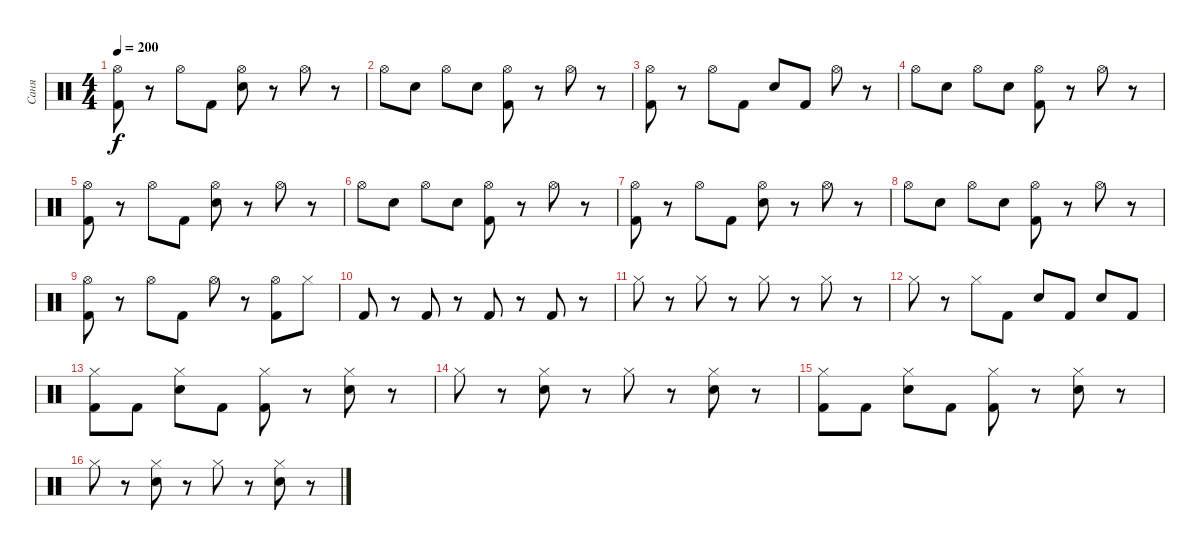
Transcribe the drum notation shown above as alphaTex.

\track ("Саня" "Саня") {instrument percussion}
\staff {score}
\articulation defaults
\ts (4 4)
\tempo 200
\clef neutral
\ks c
("Hi-Hat (open)" "Kick (hit) 2").8{dy f} r.8 "Hi-Hat (open)".8 "Kick (hit) 2".8 ("Hi-Hat (open)" "Electric Snare (hit)").8 r.8 "Hi-Hat (open)".8 r.8 |
"Hi-Hat (open)".8 "Electric Snare (hit)".8 "Hi-Hat (open)".8 "Electric Snare (hit)".8 ("Hi-Hat (open)" "Kick (hit) 2").8 r.8 "Hi-Hat (open)".8 r.8 |
("Hi-Hat (open)" "Kick (hit) 2").8 r.8 "Hi-Hat (open)".8 "Kick (hit) 2".8 "Electric Snare (hit)".8 "Kick (hit) 2".8 "Hi-Hat (open)".8 r.8 |
"Hi-Hat (open)".8 "Electric Snare (hit)".8 "Hi-Hat (open)".8 "Electric Snare (hit)".8 ("Hi-Hat (open)" "Kick (hit) 2").8 r.8 "Hi-Hat (open)".8 r.8 |
("Hi-Hat (open)" "Kick (hit) 2").8 r.8 "Hi-Hat (open)".8 "Kick (hit) 2".8 ("Hi-Hat (open)" "Electric Snare (hit)").8 r.8 "Hi-Hat (open)".8 r.8 |
"Hi-Hat (open)".8 "Electric Snare (hit)".8 "Hi-Hat (open)".8 "Electric Snare (hit)".8 ("Hi-Hat (open)" "Kick (hit) 2").8 r.8 "Hi-Hat (open)".8 r.8 |
("Hi-Hat (open)" "Kick (hit) 2").8 r.8 "Hi-Hat (open)".8 "Kick (hit) 2".8 ("Hi-Hat (open)" "Electric Snare (hit)").8 r.8 "Hi-Hat (open)".8 r.8 |
"Hi-Hat (open)".8 "Electric Snare (hit)".8 "Hi-Hat (open)".8 "Electric Snare (hit)".8 ("Hi-Hat (open)" "Kick (hit) 2").8 r.8 "Hi-Hat (open)".8 r.8 |
("Hi-Hat (open)" "Kick (hit) 2").8 r.8 "Hi-Hat (open)".8 "Kick (hit) 2".8 "Hi-Hat (open)".8 r.8 ("Hi-Hat (open)" "Kick (hit) 2").8 "Hi-Hat (closed)".8 |
"Kick (hit) 2".8 r.8 "Kick (hit) 2".8 r.8 "Kick (hit) 2".8 r.8 "Kick (hit) 2".8 r.8 |
"Hi-Hat (closed)".8 r.8 "Hi-Hat (closed)".8 r.8 "Hi-Hat (closed)".8 r.8 "Hi-Hat (closed)".8 r.8 |
"Hi-Hat (closed)".8 r.8 "Hi-Hat (closed)".8 "Kick (hit) 2".8 "Electric Snare (hit)".8 "Kick (hit) 2".8 "Electric Snare (hit)".8 "Kick (hit) 2".8 |
("Hi-Hat (closed)" "Kick (hit) 2").8 "Kick (hit) 2".8 ("Hi-Hat (closed)" "Electric Snare (hit)").8 "Kick (hit) 2".8 ("Hi-Hat (closed)" "Kick (hit) 2").8 r.8 ("Hi-Hat (closed)" "Electric Snare (hit)").8 r.8 |
"Hi-Hat (closed)".8 r.8 ("Hi-Hat (closed)" "Electric Snare (hit)").8 r.8 "Hi-Hat (closed)".8 r.8 ("Hi-Hat (closed)" "Electric Snare (hit)").8 r.8 |
("Hi-Hat (closed)" "Kick (hit) 2").8 "Kick (hit) 2".8 ("Hi-Hat (closed)" "Electric Snare (hit)").8 "Kick (hit) 2".8 ("Hi-Hat (closed)" "Kick (hit) 2").8 r.8 ("Hi-Hat (closed)" "Electric Snare (hit)").8 r.8 |
"Hi-Hat (closed)".8 r.8 ("Hi-Hat (closed)" "Electric Snare (hit)").8 r.8 "Hi-Hat (closed)".8 r.8 ("Hi-Hat (closed)" "Electric Snare (hit)").8 r.8
